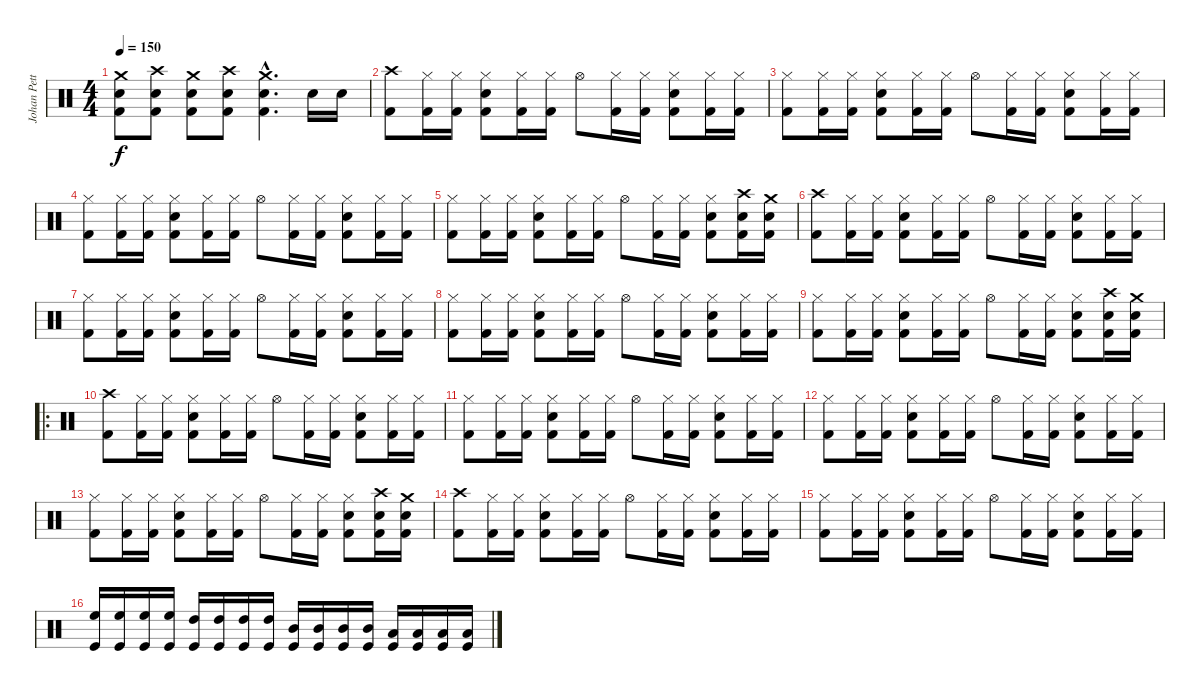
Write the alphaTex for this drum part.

\track ("Johan Petterson" "Johan Pett") {instrument percussion}
\staff {score}
\articulation defaults
\ts (4 4)
\tempo 150
\clef neutral
\ks c
("Crash medium (hit)" "Snare (hit) 2" "Kick (hit) 2").8{dy f} ("Crash high (hit)" "Snare (hit) 2" "Kick (hit) 2").8 ("Crash medium (hit)" "Snare (hit) 2" "Kick (hit) 2").8 ("Crash high (hit)" "Snare (hit) 2" "Kick (hit) 2").8 ("Crash medium (hit)"{hac} "Snare (hit) 2"{hac} "Kick (hit) 2"{hac}).4{d} "Snare (hit) 2".16 "Snare (hit) 2".16 |
\section ("" "")
("Crash high (hit)" "Kick (hit) 2").8 ("Hi-Hat (closed)" "Kick (hit) 2").16 ("Hi-Hat (closed)" "Kick (hit) 2").16 ("Hi-Hat (closed)" "Snare (hit) 2" "Kick (hit) 2").8 ("Hi-Hat (closed)" "Kick (hit) 2").16 ("Hi-Hat (closed)" "Kick (hit) 2").16 "Hi-Hat (open)".8 ("Hi-Hat (closed)" "Kick (hit) 2").16 ("Hi-Hat (closed)" "Kick (hit) 2").16 ("Hi-Hat (closed)" "Snare (hit) 2" "Kick (hit) 2").8 ("Hi-Hat (closed)" "Kick (hit) 2").16 ("Hi-Hat (closed)" "Kick (hit) 2").16 |
("Hi-Hat (closed)" "Kick (hit) 2").8 ("Hi-Hat (closed)" "Kick (hit) 2").16 ("Hi-Hat (closed)" "Kick (hit) 2").16 ("Hi-Hat (closed)" "Snare (hit) 2" "Kick (hit) 2").8 ("Hi-Hat (closed)" "Kick (hit) 2").16 ("Hi-Hat (closed)" "Kick (hit) 2").16 "Hi-Hat (open)".8 ("Hi-Hat (closed)" "Kick (hit) 2").16 ("Hi-Hat (closed)" "Kick (hit) 2").16 ("Hi-Hat (closed)" "Snare (hit) 2" "Kick (hit) 2").8 ("Hi-Hat (closed)" "Kick (hit) 2").16 ("Hi-Hat (closed)" "Kick (hit) 2").16 |
("Hi-Hat (closed)" "Kick (hit) 2").8 ("Hi-Hat (closed)" "Kick (hit) 2").16 ("Hi-Hat (closed)" "Kick (hit) 2").16 ("Hi-Hat (closed)" "Snare (hit) 2" "Kick (hit) 2").8 ("Hi-Hat (closed)" "Kick (hit) 2").16 ("Hi-Hat (closed)" "Kick (hit) 2").16 "Hi-Hat (open)".8 ("Hi-Hat (closed)" "Kick (hit) 2").16 ("Hi-Hat (closed)" "Kick (hit) 2").16 ("Hi-Hat (closed)" "Snare (hit) 2" "Kick (hit) 2").8 ("Hi-Hat (closed)" "Kick (hit) 2").16 ("Hi-Hat (closed)" "Kick (hit) 2").16 |
("Hi-Hat (closed)" "Kick (hit) 2").8 ("Hi-Hat (closed)" "Kick (hit) 2").16 ("Hi-Hat (closed)" "Kick (hit) 2").16 ("Hi-Hat (closed)" "Snare (hit) 2" "Kick (hit) 2").8 ("Hi-Hat (closed)" "Kick (hit) 2").16 ("Hi-Hat (closed)" "Kick (hit) 2").16 "Hi-Hat (open)".8 ("Hi-Hat (closed)" "Kick (hit) 2").16 ("Hi-Hat (closed)" "Kick (hit) 2").16 ("Hi-Hat (closed)" "Snare (hit) 2" "Kick (hit) 2").8 ("Crash high (hit)" "Snare (hit) 2" "Kick (hit) 2").16 ("Crash medium (hit)" "Snare (hit) 2" "Kick (hit) 2").16 |
("Crash high (hit)" "Kick (hit) 2").8 ("Hi-Hat (closed)" "Kick (hit) 2").16 ("Hi-Hat (closed)" "Kick (hit) 2").16 ("Hi-Hat (closed)" "Snare (hit) 2" "Kick (hit) 2").8 ("Hi-Hat (closed)" "Kick (hit) 2").16 ("Hi-Hat (closed)" "Kick (hit) 2").16 "Hi-Hat (open)".8 ("Hi-Hat (closed)" "Kick (hit) 2").16 ("Hi-Hat (closed)" "Kick (hit) 2").16 ("Hi-Hat (closed)" "Snare (hit) 2" "Kick (hit) 2").8 ("Hi-Hat (closed)" "Kick (hit) 2").16 ("Hi-Hat (closed)" "Kick (hit) 2").16 |
("Hi-Hat (closed)" "Kick (hit) 2").8 ("Hi-Hat (closed)" "Kick (hit) 2").16 ("Hi-Hat (closed)" "Kick (hit) 2").16 ("Hi-Hat (closed)" "Snare (hit) 2" "Kick (hit) 2").8 ("Hi-Hat (closed)" "Kick (hit) 2").16 ("Hi-Hat (closed)" "Kick (hit) 2").16 "Hi-Hat (open)".8 ("Hi-Hat (closed)" "Kick (hit) 2").16 ("Hi-Hat (closed)" "Kick (hit) 2").16 ("Hi-Hat (closed)" "Snare (hit) 2" "Kick (hit) 2").8 ("Hi-Hat (closed)" "Kick (hit) 2").16 ("Hi-Hat (closed)" "Kick (hit) 2").16 |
("Hi-Hat (closed)" "Kick (hit) 2").8 ("Hi-Hat (closed)" "Kick (hit) 2").16 ("Hi-Hat (closed)" "Kick (hit) 2").16 ("Hi-Hat (closed)" "Snare (hit) 2" "Kick (hit) 2").8 ("Hi-Hat (closed)" "Kick (hit) 2").16 ("Hi-Hat (closed)" "Kick (hit) 2").16 "Hi-Hat (open)".8 ("Hi-Hat (closed)" "Kick (hit) 2").16 ("Hi-Hat (closed)" "Kick (hit) 2").16 ("Hi-Hat (closed)" "Snare (hit) 2" "Kick (hit) 2").8 ("Hi-Hat (closed)" "Kick (hit) 2").16 ("Hi-Hat (closed)" "Kick (hit) 2").16 |
("Hi-Hat (closed)" "Kick (hit) 2").8 ("Hi-Hat (closed)" "Kick (hit) 2").16 ("Hi-Hat (closed)" "Kick (hit) 2").16 ("Hi-Hat (closed)" "Snare (hit) 2" "Kick (hit) 2").8 ("Hi-Hat (closed)" "Kick (hit) 2").16 ("Hi-Hat (closed)" "Kick (hit) 2").16 "Hi-Hat (open)".8 ("Hi-Hat (closed)" "Kick (hit) 2").16 ("Hi-Hat (closed)" "Kick (hit) 2").16 ("Hi-Hat (closed)" "Snare (hit) 2" "Kick (hit) 2").8 ("Crash high (hit)" "Snare (hit) 2" "Kick (hit) 2").16 ("Crash medium (hit)" "Snare (hit) 2" "Kick (hit) 2").16 |
\ro
\section ("" "")
("Crash high (hit)" "Kick (hit) 2").8 ("Hi-Hat (closed)" "Kick (hit) 2").16 ("Hi-Hat (closed)" "Kick (hit) 2").16 ("Hi-Hat (closed)" "Snare (hit) 2" "Kick (hit) 2").8 ("Hi-Hat (closed)" "Kick (hit) 2").16 ("Hi-Hat (closed)" "Kick (hit) 2").16 "Hi-Hat (open)".8 ("Hi-Hat (closed)" "Kick (hit) 2").16 ("Hi-Hat (closed)" "Kick (hit) 2").16 ("Hi-Hat (closed)" "Snare (hit) 2" "Kick (hit) 2").8 ("Hi-Hat (closed)" "Kick (hit) 2").16 ("Hi-Hat (closed)" "Kick (hit) 2").16 |
("Hi-Hat (closed)" "Kick (hit) 2").8 ("Hi-Hat (closed)" "Kick (hit) 2").16 ("Hi-Hat (closed)" "Kick (hit) 2").16 ("Hi-Hat (closed)" "Snare (hit) 2" "Kick (hit) 2").8 ("Hi-Hat (closed)" "Kick (hit) 2").16 ("Hi-Hat (closed)" "Kick (hit) 2").16 "Hi-Hat (open)".8 ("Hi-Hat (closed)" "Kick (hit) 2").16 ("Hi-Hat (closed)" "Kick (hit) 2").16 ("Hi-Hat (closed)" "Snare (hit) 2" "Kick (hit) 2").8 ("Hi-Hat (closed)" "Kick (hit) 2").16 ("Hi-Hat (closed)" "Kick (hit) 2").16 |
("Hi-Hat (closed)" "Kick (hit) 2").8 ("Hi-Hat (closed)" "Kick (hit) 2").16 ("Hi-Hat (closed)" "Kick (hit) 2").16 ("Hi-Hat (closed)" "Snare (hit) 2" "Kick (hit) 2").8 ("Hi-Hat (closed)" "Kick (hit) 2").16 ("Hi-Hat (closed)" "Kick (hit) 2").16 "Hi-Hat (open)".8 ("Hi-Hat (closed)" "Kick (hit) 2").16 ("Hi-Hat (closed)" "Kick (hit) 2").16 ("Hi-Hat (closed)" "Snare (hit) 2" "Kick (hit) 2").8 ("Hi-Hat (closed)" "Kick (hit) 2").16 ("Hi-Hat (closed)" "Kick (hit) 2").16 |
("Hi-Hat (closed)" "Kick (hit) 2").8 ("Hi-Hat (closed)" "Kick (hit) 2").16 ("Hi-Hat (closed)" "Kick (hit) 2").16 ("Hi-Hat (closed)" "Snare (hit) 2" "Kick (hit) 2").8 ("Hi-Hat (closed)" "Kick (hit) 2").16 ("Hi-Hat (closed)" "Kick (hit) 2").16 "Hi-Hat (open)".8 ("Hi-Hat (closed)" "Kick (hit) 2").16 ("Hi-Hat (closed)" "Kick (hit) 2").16 ("Hi-Hat (closed)" "Snare (hit) 2" "Kick (hit) 2").8 ("Crash high (hit)" "Snare (hit) 2" "Kick (hit) 2").16 ("Crash medium (hit)" "Snare (hit) 2" "Kick (hit) 2").16 |
("Crash high (hit)" "Kick (hit) 2").8 ("Hi-Hat (closed)" "Kick (hit) 2").16 ("Hi-Hat (closed)" "Kick (hit) 2").16 ("Hi-Hat (closed)" "Snare (hit) 2" "Kick (hit) 2").8 ("Hi-Hat (closed)" "Kick (hit) 2").16 ("Hi-Hat (closed)" "Kick (hit) 2").16 "Hi-Hat (open)".8 ("Hi-Hat (closed)" "Kick (hit) 2").16 ("Hi-Hat (closed)" "Kick (hit) 2").16 ("Hi-Hat (closed)" "Snare (hit) 2" "Kick (hit) 2").8 ("Hi-Hat (closed)" "Kick (hit) 2").16 ("Hi-Hat (closed)" "Kick (hit) 2").16 |
("Hi-Hat (closed)" "Kick (hit) 2").8 ("Hi-Hat (closed)" "Kick (hit) 2").16 ("Hi-Hat (closed)" "Kick (hit) 2").16 ("Hi-Hat (closed)" "Snare (hit) 2" "Kick (hit) 2").8 ("Hi-Hat (closed)" "Kick (hit) 2").16 ("Hi-Hat (closed)" "Kick (hit) 2").16 "Hi-Hat (open)".8 ("Hi-Hat (closed)" "Kick (hit) 2").16 ("Hi-Hat (closed)" "Kick (hit) 2").16 ("Hi-Hat (closed)" "Snare (hit) 2" "Kick (hit) 2").8 ("Hi-Hat (closed)" "Kick (hit) 2").16 ("Hi-Hat (closed)" "Kick (hit) 2").16 |
("Kick (hit)" "High Floor Tom (hit)").16 ("Kick (hit)" "High Floor Tom (hit)").16 ("Kick (hit)" "High Floor Tom (hit)").16 ("Kick (hit)" "High Floor Tom (hit)").16 ("Kick (hit)" "High Tom (hit)").16 ("Kick (hit)" "High Tom (hit)").16 ("Kick (hit)" "High Tom (hit)").16 ("Kick (hit)" "High Tom (hit)").16 ("Kick (hit)" "Mid Tom (hit)").16 ("Kick (hit)" "Mid Tom (hit)").16 ("Kick (hit)" "Mid Tom (hit)").16 ("Kick (hit)" "Mid Tom (hit)").16 ("Kick (hit)" "Low Tom (hit)").16 ("Kick (hit)" "Low Tom (hit)").16 ("Kick (hit)" "Low Tom (hit)").16 ("Kick (hit)" "Low Tom (hit)").16
